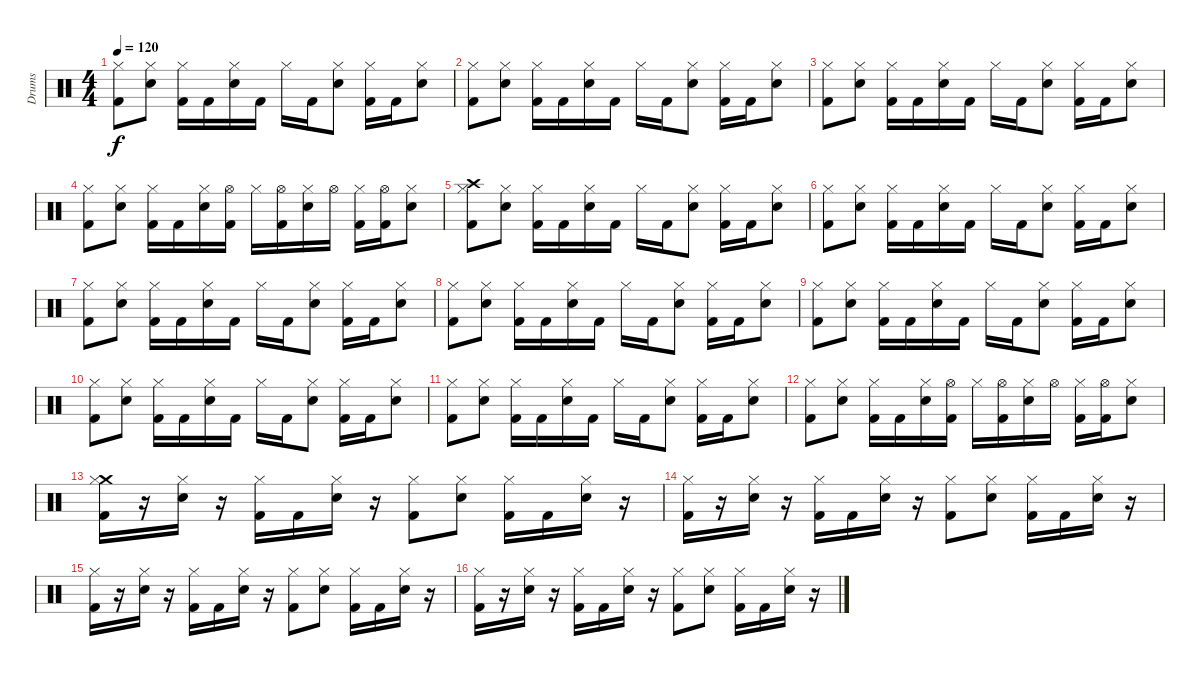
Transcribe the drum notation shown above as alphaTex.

\track ("Drums" "Drums") {instrument percussion}
\staff {score}
\articulation defaults
\ts (4 4)
\tempo 120
\clef neutral
\ks c
("Hi-Hat (closed)" "Kick (hit) 2").8{dy f} ("Hi-Hat (closed)" "Electric Snare (hit)").8 ("Hi-Hat (closed)" "Kick (hit) 2").16 "Kick (hit) 2".16 ("Hi-Hat (closed)" "Electric Snare (hit)").16 "Kick (hit) 2".16 "Hi-Hat (closed)".16 "Kick (hit) 2".16 ("Hi-Hat (closed)" "Electric Snare (hit)").8 ("Hi-Hat (closed)" "Kick (hit) 2").16 "Kick (hit) 2".16 ("Hi-Hat (closed)" "Electric Snare (hit)").8 |
("Hi-Hat (closed)" "Kick (hit) 2").8 ("Hi-Hat (closed)" "Electric Snare (hit)").8 ("Hi-Hat (closed)" "Kick (hit) 2").16 "Kick (hit) 2".16 ("Hi-Hat (closed)" "Electric Snare (hit)").16 "Kick (hit) 2".16 "Hi-Hat (closed)".16 "Kick (hit) 2".16 ("Hi-Hat (closed)" "Electric Snare (hit)").8 ("Hi-Hat (closed)" "Kick (hit) 2").16 "Kick (hit) 2".16 ("Hi-Hat (closed)" "Electric Snare (hit)").8 |
("Hi-Hat (closed)" "Kick (hit) 2").8 ("Hi-Hat (closed)" "Electric Snare (hit)").8 ("Hi-Hat (closed)" "Kick (hit) 2").16 "Kick (hit) 2".16 ("Hi-Hat (closed)" "Electric Snare (hit)").16 "Kick (hit) 2".16 "Hi-Hat (closed)".16 "Kick (hit) 2".16 ("Hi-Hat (closed)" "Electric Snare (hit)").8 ("Hi-Hat (closed)" "Kick (hit) 2").16 "Kick (hit) 2".16 ("Hi-Hat (closed)" "Electric Snare (hit)").8 |
("Hi-Hat (closed)" "Kick (hit) 2").8 ("Hi-Hat (closed)" "Electric Snare (hit)").8 ("Hi-Hat (closed)" "Kick (hit) 2").16 "Kick (hit) 2".16 ("Hi-Hat (closed)" "Electric Snare (hit)").16 ("Hi-Hat (open)" "Kick (hit) 2").16 "Hi-Hat (closed)".16 ("Hi-Hat (open)" "Kick (hit) 2").16 ("Hi-Hat (closed)" "Electric Snare (hit)").16 "Hi-Hat (open)".16 ("Hi-Hat (closed)" "Kick (hit) 2").16 ("Hi-Hat (open)" "Kick (hit) 2").16 ("Hi-Hat (closed)" "Electric Snare (hit)").8 |
("Crash high (hit)" "Hi-Hat (closed)" "Kick (hit) 2").8 ("Hi-Hat (closed)" "Electric Snare (hit)").8 ("Hi-Hat (closed)" "Kick (hit) 2").16 "Kick (hit) 2".16 ("Hi-Hat (closed)" "Electric Snare (hit)").16 "Kick (hit) 2".16 "Hi-Hat (closed)".16 "Kick (hit) 2".16 ("Hi-Hat (closed)" "Electric Snare (hit)").8 ("Hi-Hat (closed)" "Kick (hit) 2").16 "Kick (hit) 2".16 ("Hi-Hat (closed)" "Electric Snare (hit)").8 |
("Hi-Hat (closed)" "Kick (hit) 2").8 ("Hi-Hat (closed)" "Electric Snare (hit)").8 ("Hi-Hat (closed)" "Kick (hit) 2").16 "Kick (hit) 2".16 ("Hi-Hat (closed)" "Electric Snare (hit)").16 "Kick (hit) 2".16 "Hi-Hat (closed)".16 "Kick (hit) 2".16 ("Hi-Hat (closed)" "Electric Snare (hit)").8 ("Hi-Hat (closed)" "Kick (hit) 2").16 "Kick (hit) 2".16 ("Hi-Hat (closed)" "Electric Snare (hit)").8 |
("Hi-Hat (closed)" "Kick (hit) 2").8 ("Hi-Hat (closed)" "Electric Snare (hit)").8 ("Hi-Hat (closed)" "Kick (hit) 2").16 "Kick (hit) 2".16 ("Hi-Hat (closed)" "Electric Snare (hit)").16 "Kick (hit) 2".16 "Hi-Hat (closed)".16 "Kick (hit) 2".16 ("Hi-Hat (closed)" "Electric Snare (hit)").8 ("Hi-Hat (closed)" "Kick (hit) 2").16 "Kick (hit) 2".16 ("Hi-Hat (closed)" "Electric Snare (hit)").8 |
("Hi-Hat (closed)" "Kick (hit) 2").8 ("Hi-Hat (closed)" "Electric Snare (hit)").8 ("Hi-Hat (closed)" "Kick (hit) 2").16 "Kick (hit) 2".16 ("Hi-Hat (closed)" "Electric Snare (hit)").16 "Kick (hit) 2".16 "Hi-Hat (closed)".16 "Kick (hit) 2".16 ("Hi-Hat (closed)" "Electric Snare (hit)").8 ("Hi-Hat (closed)" "Kick (hit) 2").16 "Kick (hit) 2".16 ("Hi-Hat (closed)" "Electric Snare (hit)").8 |
("Hi-Hat (closed)" "Kick (hit) 2").8 ("Hi-Hat (closed)" "Electric Snare (hit)").8 ("Hi-Hat (closed)" "Kick (hit) 2").16 "Kick (hit) 2".16 ("Hi-Hat (closed)" "Electric Snare (hit)").16 "Kick (hit) 2".16 "Hi-Hat (closed)".16 "Kick (hit) 2".16 ("Hi-Hat (closed)" "Electric Snare (hit)").8 ("Hi-Hat (closed)" "Kick (hit) 2").16 "Kick (hit) 2".16 ("Hi-Hat (closed)" "Electric Snare (hit)").8 |
("Hi-Hat (closed)" "Kick (hit) 2").8 ("Hi-Hat (closed)" "Electric Snare (hit)").8 ("Hi-Hat (closed)" "Kick (hit) 2").16 "Kick (hit) 2".16 ("Hi-Hat (closed)" "Electric Snare (hit)").16 "Kick (hit) 2".16 "Hi-Hat (closed)".16 "Kick (hit) 2".16 ("Hi-Hat (closed)" "Electric Snare (hit)").8 ("Hi-Hat (closed)" "Kick (hit) 2").16 "Kick (hit) 2".16 ("Hi-Hat (closed)" "Electric Snare (hit)").8 |
("Hi-Hat (closed)" "Kick (hit) 2").8 ("Hi-Hat (closed)" "Electric Snare (hit)").8 ("Hi-Hat (closed)" "Kick (hit) 2").16 "Kick (hit) 2".16 ("Hi-Hat (closed)" "Electric Snare (hit)").16 "Kick (hit) 2".16 "Hi-Hat (closed)".16 "Kick (hit) 2".16 ("Hi-Hat (closed)" "Electric Snare (hit)").8 ("Hi-Hat (closed)" "Kick (hit) 2").16 "Kick (hit) 2".16 ("Hi-Hat (closed)" "Electric Snare (hit)").8 |
("Hi-Hat (closed)" "Kick (hit) 2").8 ("Hi-Hat (closed)" "Electric Snare (hit)").8 ("Hi-Hat (closed)" "Kick (hit) 2").16 "Kick (hit) 2".16 ("Hi-Hat (closed)" "Electric Snare (hit)").16 ("Hi-Hat (open)" "Kick (hit) 2").16 "Hi-Hat (closed)".16 ("Hi-Hat (open)" "Kick (hit) 2").16 ("Hi-Hat (closed)" "Electric Snare (hit)").16 "Hi-Hat (open)".16 ("Hi-Hat (closed)" "Kick (hit) 2").16 ("Hi-Hat (open)" "Kick (hit) 2").16 ("Hi-Hat (closed)" "Electric Snare (hit)").8 |
("Crash medium (hit)" "Hi-Hat (closed)" "Kick (hit) 2").16 r.16 ("Hi-Hat (closed)" "Electric Snare (hit)").16 r.16 ("Hi-Hat (closed)" "Kick (hit) 2").16 "Kick (hit) 2".16 ("Hi-Hat (closed)" "Electric Snare (hit)").16 r.16 ("Hi-Hat (closed)" "Kick (hit) 2").8 ("Hi-Hat (closed)" "Electric Snare (hit)").8 ("Hi-Hat (closed)" "Kick (hit) 2").16 "Kick (hit) 2".16 ("Hi-Hat (closed)" "Electric Snare (hit)").16 r.16 |
("Hi-Hat (closed)" "Kick (hit) 2").16 r.16 ("Hi-Hat (closed)" "Electric Snare (hit)").16 r.16 ("Hi-Hat (closed)" "Kick (hit) 2").16 "Kick (hit) 2".16 ("Hi-Hat (closed)" "Electric Snare (hit)").16 r.16 ("Hi-Hat (closed)" "Kick (hit) 2").8 ("Hi-Hat (closed)" "Electric Snare (hit)").8 ("Hi-Hat (closed)" "Kick (hit) 2").16 "Kick (hit) 2".16 ("Hi-Hat (closed)" "Electric Snare (hit)").16 r.16 |
("Hi-Hat (closed)" "Kick (hit) 2").16 r.16 ("Hi-Hat (closed)" "Electric Snare (hit)").16 r.16 ("Hi-Hat (closed)" "Kick (hit) 2").16 "Kick (hit) 2".16 ("Hi-Hat (closed)" "Electric Snare (hit)").16 r.16 ("Hi-Hat (closed)" "Kick (hit) 2").8 ("Hi-Hat (closed)" "Electric Snare (hit)").8 ("Hi-Hat (closed)" "Kick (hit) 2").16 "Kick (hit) 2".16 ("Hi-Hat (closed)" "Electric Snare (hit)").16 r.16 |
("Hi-Hat (closed)" "Kick (hit) 2").16 r.16 ("Hi-Hat (closed)" "Electric Snare (hit)").16 r.16 ("Hi-Hat (closed)" "Kick (hit) 2").16 "Kick (hit) 2".16 ("Hi-Hat (closed)" "Electric Snare (hit)").16 r.16 ("Hi-Hat (closed)" "Kick (hit) 2").8 ("Hi-Hat (closed)" "Electric Snare (hit)").8 ("Hi-Hat (closed)" "Kick (hit) 2").16 "Kick (hit) 2".16 ("Hi-Hat (closed)" "Electric Snare (hit)").16 r.16
